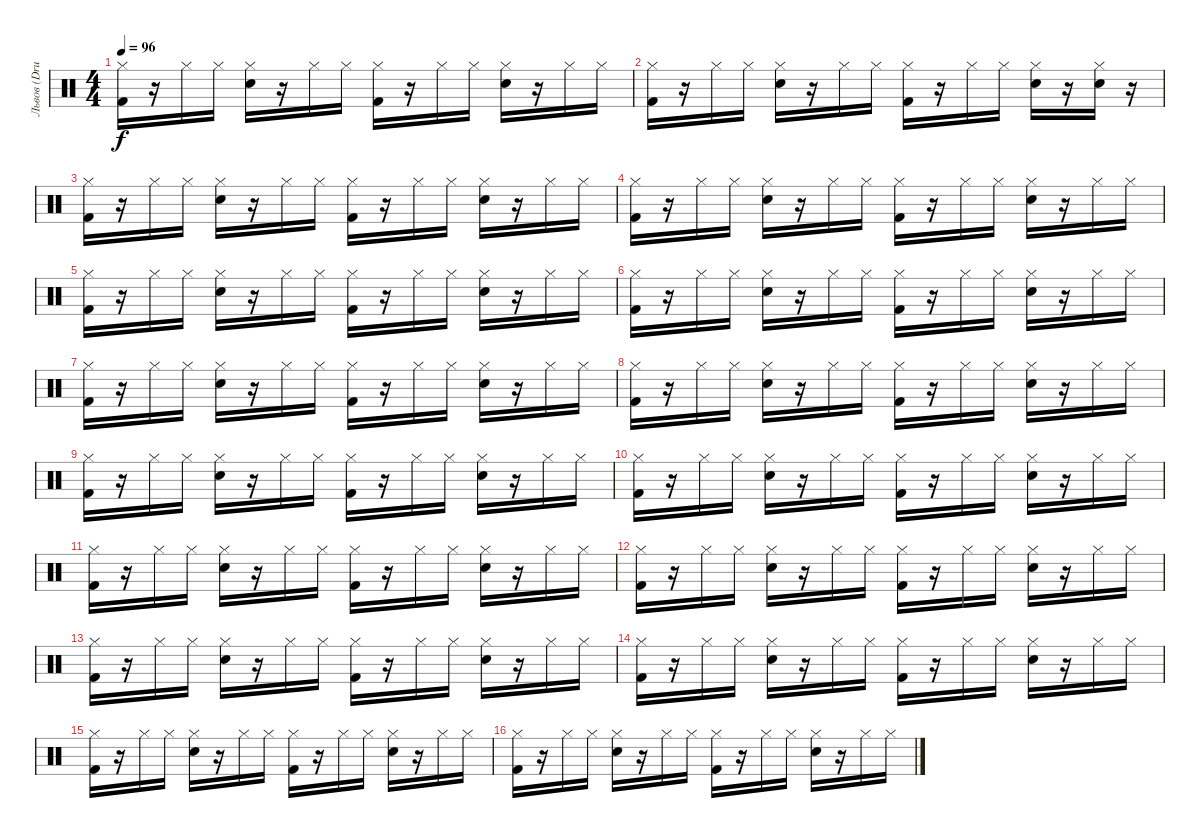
\track ("Львов (Drums)" "Львов (Dru") {instrument percussion}
\staff {score}
\articulation defaults
\ts (4 4)
\tempo 96
\clef neutral
\ks c
("Kick (hit) 2" "Hi-Hat (closed)").16{dy f} r.16 "Hi-Hat (closed)".16 "Hi-Hat (closed)".16 ("Electric Snare (hit)" "Hi-Hat (closed)").16 r.16 "Hi-Hat (closed)".16 "Hi-Hat (closed)".16 ("Kick (hit) 2" "Hi-Hat (closed)").16 r.16 "Hi-Hat (closed)".16 "Hi-Hat (closed)".16 ("Electric Snare (hit)" "Hi-Hat (closed)").16 r.16 "Hi-Hat (closed)".16 "Hi-Hat (closed)".16 |
("Kick (hit) 2" "Hi-Hat (closed)").16 r.16 "Hi-Hat (closed)".16 "Hi-Hat (closed)".16 ("Electric Snare (hit)" "Hi-Hat (closed)").16 r.16 "Hi-Hat (closed)".16 "Hi-Hat (closed)".16 ("Kick (hit) 2" "Hi-Hat (closed)").16 r.16 "Hi-Hat (closed)".16 "Hi-Hat (closed)".16 ("Electric Snare (hit)" "Hi-Hat (closed)").16 r.16 ("Electric Snare (hit)" "Hi-Hat (closed)").16 r.16 |
("Kick (hit) 2" "Hi-Hat (closed)").16 r.16 "Hi-Hat (closed)".16 "Hi-Hat (closed)".16 ("Electric Snare (hit)" "Hi-Hat (closed)").16 r.16 "Hi-Hat (closed)".16 "Hi-Hat (closed)".16 ("Kick (hit) 2" "Hi-Hat (closed)").16 r.16 "Hi-Hat (closed)".16 "Hi-Hat (closed)".16 ("Electric Snare (hit)" "Hi-Hat (closed)").16 r.16 "Hi-Hat (closed)".16 "Hi-Hat (closed)".16 |
("Kick (hit) 2" "Hi-Hat (closed)").16 r.16 "Hi-Hat (closed)".16 "Hi-Hat (closed)".16 ("Electric Snare (hit)" "Hi-Hat (closed)").16 r.16 "Hi-Hat (closed)".16 "Hi-Hat (closed)".16 ("Kick (hit) 2" "Hi-Hat (closed)").16 r.16 "Hi-Hat (closed)".16 "Hi-Hat (closed)".16 ("Electric Snare (hit)" "Hi-Hat (closed)").16 r.16 "Hi-Hat (closed)".16 "Hi-Hat (closed)".16 |
("Kick (hit) 2" "Hi-Hat (closed)").16 r.16 "Hi-Hat (closed)".16 "Hi-Hat (closed)".16 ("Electric Snare (hit)" "Hi-Hat (closed)").16 r.16 "Hi-Hat (closed)".16 "Hi-Hat (closed)".16 ("Kick (hit) 2" "Hi-Hat (closed)").16 r.16 "Hi-Hat (closed)".16 "Hi-Hat (closed)".16 ("Electric Snare (hit)" "Hi-Hat (closed)").16 r.16 "Hi-Hat (closed)".16 "Hi-Hat (closed)".16 |
("Kick (hit) 2" "Hi-Hat (closed)").16 r.16 "Hi-Hat (closed)".16 "Hi-Hat (closed)".16 ("Electric Snare (hit)" "Hi-Hat (closed)").16 r.16 "Hi-Hat (closed)".16 "Hi-Hat (closed)".16 ("Kick (hit) 2" "Hi-Hat (closed)").16 r.16 "Hi-Hat (closed)".16 "Hi-Hat (closed)".16 ("Electric Snare (hit)" "Hi-Hat (closed)").16 r.16 "Hi-Hat (closed)".16 "Hi-Hat (closed)".16 |
("Kick (hit) 2" "Hi-Hat (closed)").16 r.16 "Hi-Hat (closed)".16 "Hi-Hat (closed)".16 ("Electric Snare (hit)" "Hi-Hat (closed)").16 r.16 "Hi-Hat (closed)".16 "Hi-Hat (closed)".16 ("Kick (hit) 2" "Hi-Hat (closed)").16 r.16 "Hi-Hat (closed)".16 "Hi-Hat (closed)".16 ("Electric Snare (hit)" "Hi-Hat (closed)").16 r.16 "Hi-Hat (closed)".16 "Hi-Hat (closed)".16 |
("Kick (hit) 2" "Hi-Hat (closed)").16 r.16 "Hi-Hat (closed)".16 "Hi-Hat (closed)".16 ("Electric Snare (hit)" "Hi-Hat (closed)").16 r.16 "Hi-Hat (closed)".16 "Hi-Hat (closed)".16 ("Kick (hit) 2" "Hi-Hat (closed)").16 r.16 "Hi-Hat (closed)".16 "Hi-Hat (closed)".16 ("Electric Snare (hit)" "Hi-Hat (closed)").16 r.16 "Hi-Hat (closed)".16 "Hi-Hat (closed)".16 |
("Kick (hit) 2" "Hi-Hat (closed)").16 r.16 "Hi-Hat (closed)".16 "Hi-Hat (closed)".16 ("Electric Snare (hit)" "Hi-Hat (closed)").16 r.16 "Hi-Hat (closed)".16 "Hi-Hat (closed)".16 ("Kick (hit) 2" "Hi-Hat (closed)").16 r.16 "Hi-Hat (closed)".16 "Hi-Hat (closed)".16 ("Electric Snare (hit)" "Hi-Hat (closed)").16 r.16 "Hi-Hat (closed)".16 "Hi-Hat (closed)".16 |
("Kick (hit) 2" "Hi-Hat (closed)").16 r.16 "Hi-Hat (closed)".16 "Hi-Hat (closed)".16 ("Electric Snare (hit)" "Hi-Hat (closed)").16 r.16 "Hi-Hat (closed)".16 "Hi-Hat (closed)".16 ("Kick (hit) 2" "Hi-Hat (closed)").16 r.16 "Hi-Hat (closed)".16 "Hi-Hat (closed)".16 ("Electric Snare (hit)" "Hi-Hat (closed)").16 r.16 "Hi-Hat (closed)".16 "Hi-Hat (closed)".16 |
("Kick (hit) 2" "Hi-Hat (closed)").16 r.16 "Hi-Hat (closed)".16 "Hi-Hat (closed)".16 ("Electric Snare (hit)" "Hi-Hat (closed)").16 r.16 "Hi-Hat (closed)".16 "Hi-Hat (closed)".16 ("Kick (hit) 2" "Hi-Hat (closed)").16 r.16 "Hi-Hat (closed)".16 "Hi-Hat (closed)".16 ("Electric Snare (hit)" "Hi-Hat (closed)").16 r.16 "Hi-Hat (closed)".16 "Hi-Hat (closed)".16 |
("Kick (hit) 2" "Hi-Hat (closed)").16 r.16 "Hi-Hat (closed)".16 "Hi-Hat (closed)".16 ("Electric Snare (hit)" "Hi-Hat (closed)").16 r.16 "Hi-Hat (closed)".16 "Hi-Hat (closed)".16 ("Kick (hit) 2" "Hi-Hat (closed)").16 r.16 "Hi-Hat (closed)".16 "Hi-Hat (closed)".16 ("Electric Snare (hit)" "Hi-Hat (closed)").16 r.16 "Hi-Hat (closed)".16 "Hi-Hat (closed)".16 |
("Kick (hit) 2" "Hi-Hat (closed)").16 r.16 "Hi-Hat (closed)".16 "Hi-Hat (closed)".16 ("Electric Snare (hit)" "Hi-Hat (closed)").16 r.16 "Hi-Hat (closed)".16 "Hi-Hat (closed)".16 ("Kick (hit) 2" "Hi-Hat (closed)").16 r.16 "Hi-Hat (closed)".16 "Hi-Hat (closed)".16 ("Electric Snare (hit)" "Hi-Hat (closed)").16 r.16 "Hi-Hat (closed)".16 "Hi-Hat (closed)".16 |
("Kick (hit) 2" "Hi-Hat (closed)").16 r.16 "Hi-Hat (closed)".16 "Hi-Hat (closed)".16 ("Electric Snare (hit)" "Hi-Hat (closed)").16 r.16 "Hi-Hat (closed)".16 "Hi-Hat (closed)".16 ("Kick (hit) 2" "Hi-Hat (closed)").16 r.16 "Hi-Hat (closed)".16 "Hi-Hat (closed)".16 ("Electric Snare (hit)" "Hi-Hat (closed)").16 r.16 "Hi-Hat (closed)".16 "Hi-Hat (closed)".16 |
("Kick (hit) 2" "Hi-Hat (closed)").16 r.16 "Hi-Hat (closed)".16 "Hi-Hat (closed)".16 ("Electric Snare (hit)" "Hi-Hat (closed)").16 r.16 "Hi-Hat (closed)".16 "Hi-Hat (closed)".16 ("Kick (hit) 2" "Hi-Hat (closed)").16 r.16 "Hi-Hat (closed)".16 "Hi-Hat (closed)".16 ("Electric Snare (hit)" "Hi-Hat (closed)").16 r.16 "Hi-Hat (closed)".16 "Hi-Hat (closed)".16 |
("Kick (hit) 2" "Hi-Hat (closed)").16 r.16 "Hi-Hat (closed)".16 "Hi-Hat (closed)".16 ("Electric Snare (hit)" "Hi-Hat (closed)").16 r.16 "Hi-Hat (closed)".16 "Hi-Hat (closed)".16 ("Kick (hit) 2" "Hi-Hat (closed)").16 r.16 "Hi-Hat (closed)".16 "Hi-Hat (closed)".16 ("Electric Snare (hit)" "Hi-Hat (closed)").16 r.16 "Hi-Hat (closed)".16 "Hi-Hat (closed)".16
